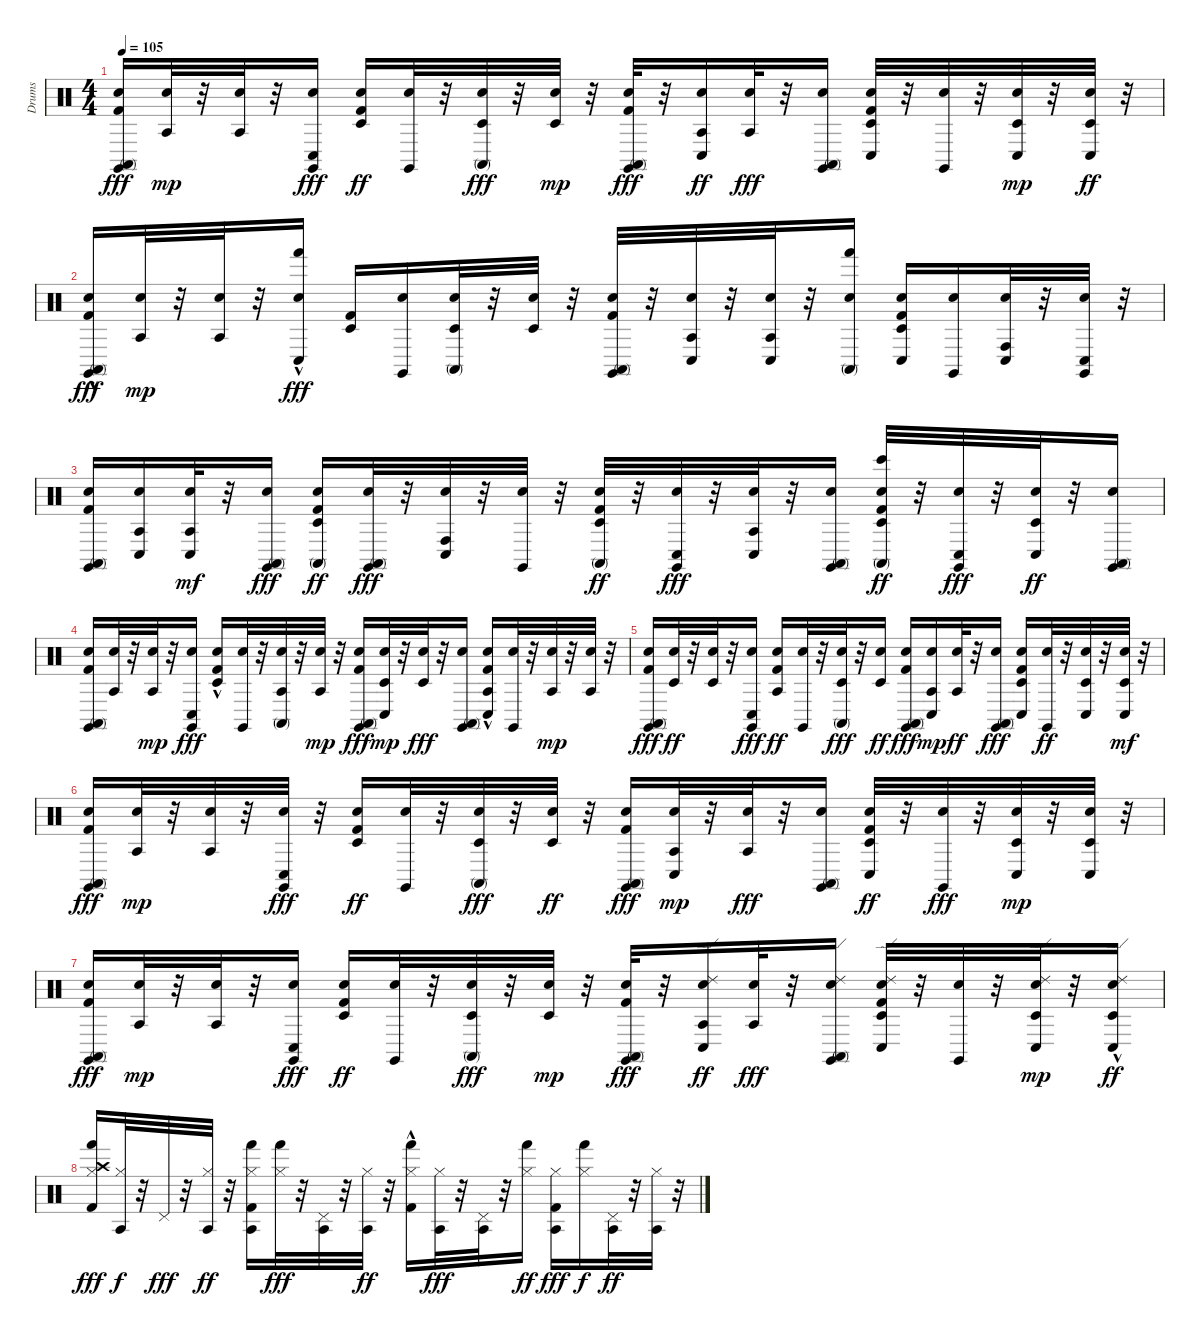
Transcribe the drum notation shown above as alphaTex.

\track ("Drums" "Drums") {instrument percussion}
\staff {score}
\articulation defaults
\ts (4 4)
\tempo 105
\clef neutral
\ks c
("Kick (hit) 2" "Snare (hit) 2" "Conga high (mute)" "Claves (hit)").16{dy fff} ("Agogo tow (hit)" "Snare (hit) 2").32{dy mp} r.32 ("Agogo tow (hit)" "Snare (hit) 2").32 r.32 ("Conga low (hit)" "Snare (hit) 2" "Claves (hit)").16{dy fff} ("Snare (hit) 2" "Kick (hit) 2" "Timbale low (hit)").16{dy ff} ("Snare (hit) 2" "Claves (hit)").32 r.32 ("Conga high (mute)" "Timbale low (hit)" "Snare (hit) 2").32{dy fff} r.32 ("Timbale low (hit)" "Snare (hit) 2").32{dy mp} r.32 ("Snare (hit) 2" "Kick (hit) 2" "Conga high (mute)" "Claves (hit)").32{dy fff} r.32 ("Agogo tow (hit)" "Snare (hit) 2" "Conga low (hit)").16{dy ff} ("Agogo tow (hit)" "Snare (hit) 2").32{dy fff} r.32 ("Conga high (mute)" "Snare (hit) 2" "Claves (hit)").16 ("Timbale low (hit)" "Kick (hit) 2" "Snare (hit) 2" "Conga low (hit)").32 r.32 ("Snare (hit) 2" "Claves (hit)").32 r.32 ("Conga low (hit)" "Timbale low (hit)" "Snare (hit) 2").32{dy mp} r.32 ("Conga low (hit)" "Snare (hit) 2" "Timbale low (hit)").32{dy ff} r.32 |
("Conga high (mute)"{hac} "Snare (hit) 2" "Kick (hit) 2" "Claves (hit)").16{dy fff} ("Agogo tow (hit)" "Snare (hit) 2").32{dy mp} r.32 ("Agogo tow (hit)" "Snare (hit) 2").32 r.32 ("Conga low (hit)" "Hand (hit)" "Snare (hit) 2"{hac}).16{dy fff} ("Kick (hit) 2" "Timbale low (hit)").16 ("Snare (hit) 2" "Claves (hit)").16 ("Conga high (mute)" "Timbale low (hit)" "Snare (hit) 2").32 r.32 ("Snare (hit) 2" "Timbale low (hit)").32 r.32 ("Conga high (mute)" "Snare (hit) 2" "Kick (hit) 2" "Claves (hit)").32 r.32 ("Conga low (hit)" "Snare (hit) 2" "Agogo tow (hit)").32 r.32 ("Conga low (hit)" "Snare (hit) 2" "Agogo tow (hit)").32 r.32 ("Conga high (mute)" "Snare (hit) 2" "Hand (hit)").16 ("Snare (hit) 2" "Kick (hit) 2" "Timbale low (hit)" "Conga low (hit)").16 ("Snare (hit) 2" "Claves (hit)").16 ("Snare (hit) 2" "Conga high (hit)" "Conga low (hit)").32 r.32 ("Conga low (hit)" "Snare (hit) 2" "Claves (hit)").32 r.32 |
("Snare (hit) 2" "Kick (hit) 2" "Conga high (mute)" "Claves (hit)").16 ("Conga low (hit)" "Snare (hit) 2" "Agogo tow (hit)").16 ("Snare (hit) 2" "Agogo tow (hit)" "Conga low (hit)").32{dy mf} r.32 ("Conga high (mute)" "Snare (hit) 2" "Claves (hit)").16{dy fff} ("Snare (hit) 2" "Kick (hit) 2" "Timbale low (hit)" "Conga high (mute)").16{dy ff} ("Snare (hit) 2" "Conga high (mute)" "Claves (hit)").32{dy fff} r.32 ("Snare (hit) 2" "Conga high (hit)" "Conga low (hit)").32 r.32 ("Snare (hit) 2" "Claves (hit)").32 r.32 ("Timbale low (hit)" "Snare (hit) 2" "Kick (hit) 2" "Conga high (mute)").32{dy ff} r.32 ("Conga low (hit)" "Snare (hit) 2" "Claves (hit)").32{dy fff} r.32 ("Agogo tow (hit)" "Snare (hit) 2" "Conga low (hit)").32 r.32 ("Snare (hit) 2" "Conga high (mute)" "Claves (hit)").16 ("Timbale low (hit)" "Snare (hit) 2" "Kick (hit) 2" "Conga high (mute)" "Bongo High (hit)").32{dy ff} r.32 ("Snare (hit) 2" "Conga low (hit)" "Claves (hit)").32{dy fff} r.32 ("Snare (hit) 2" "Timbale low (hit)" "Conga low (hit)").32{dy ff} r.32 ("Conga high (mute)" "Snare (hit) 2" "Claves (hit)").16 |
("Conga high (mute)" "Snare (hit) 2" "Kick (hit) 2" "Claves (hit)").16 ("Snare (hit) 2" "Agogo tow (hit)").32 r.32 ("Snare (hit) 2" "Agogo tow (hit)").32{dy mp} r.32 ("Snare (hit) 2" "Conga low (hit)" "Claves (hit)").16{dy fff} ("Timbale low (hit)" "Snare (hit) 2" "Kick (hit) 2"{hac}).16 ("Snare (hit) 2" "Claves (hit)").32 r.32 ("Conga high (mute)" "Agogo tow (hit)" "Snare (hit) 2").32 r.32 ("Agogo tow (hit)" "Snare (hit) 2").32{dy mp} r.32 ("Snare (hit) 2" "Kick (hit) 2" "Conga high (mute)" "Claves (hit)").16{dy fff} ("Snare (hit) 2" "Timbale low (hit)" "Conga low (hit)").32{dy mp} r.32 ("Timbale low (hit)" "Snare (hit) 2").32{dy fff} r.32 ("Conga high (mute)" "Snare (hit) 2" "Claves (hit)").16 ("Conga low (hit)"{hac} "Agogo tow (hit)" "Snare (hit) 2" "Kick (hit) 2").16 ("Snare (hit) 2" "Claves (hit)").32 r.32 ("Agogo tow (hit)" "Snare (hit) 2").32{dy mp} r.32 ("Agogo tow (hit)" "Snare (hit) 2").32 r.32 |
("Conga high (mute)" "Snare (hit) 2" "Kick (hit) 2" "Claves (hit)").16{dy fff} ("Snare (hit) 2" "Timbale low (hit)").32{dy ff} r.32 ("Snare (hit) 2" "Timbale low (hit)").32 r.32 ("Conga low (hit)" "Snare (hit) 2" "Claves (hit)").16{dy fff} ("Snare (hit) 2" "Kick (hit) 2" "Agogo tow (hit)").16{dy ff} ("Snare (hit) 2" "Claves (hit)").32 r.32 ("Conga high (mute)" "Timbale low (hit)" "Snare (hit) 2").32{dy fff} r.32 ("Snare (hit) 2" "Timbale low (hit)").16{dy ff} ("Conga high (mute)" "Snare (hit) 2" "Kick (hit) 2" "Claves (hit)").16{dy fff} ("Conga low (hit)" "Agogo tow (hit)" "Snare (hit) 2").16{dy mp} ("Snare (hit) 2" "Agogo tow (hit)").32{dy ff} r.32 ("Conga high (mute)" "Snare (hit) 2" "Claves (hit)").16{dy fff} ("Timbale low (hit)" "Snare (hit) 2" "Kick (hit) 2" "Conga low (hit)").16 ("Snare (hit) 2" "Claves (hit)").32{dy ff} r.32 ("Timbale low (hit)" "Snare (hit) 2" "Conga low (hit)").32 r.32 ("Timbale low (hit)" "Snare (hit) 2" "Conga low (hit)").32{dy mf} r.32 |
("Kick (hit) 2" "Snare (hit) 2" "Conga high (mute)" "Claves (hit)").16{dy fff} ("Agogo tow (hit)" "Snare (hit) 2").32{dy mp} r.32 ("Agogo tow (hit)" "Snare (hit) 2").32 r.32 ("Conga low (hit)" "Snare (hit) 2" "Claves (hit)").32{dy fff} r.32 ("Snare (hit) 2" "Kick (hit) 2" "Timbale low (hit)").16{dy ff} ("Snare (hit) 2" "Claves (hit)").32 r.32 ("Conga high (mute)" "Timbale low (hit)" "Snare (hit) 2").32{dy fff} r.32 ("Snare (hit) 2" "Timbale low (hit)").32{dy ff} r.32 ("Conga high (mute)" "Snare (hit) 2" "Kick (hit) 2" "Claves (hit)").16{dy fff} ("Conga low (hit)" "Agogo tow (hit)" "Snare (hit) 2").32{dy mp} r.32 ("Agogo tow (hit)" "Snare (hit) 2").32{dy fff} r.32 ("Conga high (mute)" "Snare (hit) 2" "Claves (hit)").16 ("Kick (hit) 2" "Snare (hit) 2" "Timbale low (hit)" "Conga low (hit)").32{dy ff} r.32 ("Snare (hit) 2" "Claves (hit)").32{dy fff} r.32 ("Timbale low (hit)" "Snare (hit) 2" "Conga low (hit)").32{dy mp} r.32 ("Conga low (hit)" "Timbale low (hit)" "Snare (hit) 2").32 r.32 |
("Kick (hit) 2" "Snare (hit) 2" "Conga high (mute)" "Claves (hit)").16{dy fff} ("Agogo tow (hit)" "Snare (hit) 2").32{dy mp} r.32 ("Agogo tow (hit)" "Snare (hit) 2").32 r.32 ("Conga low (hit)" "Snare (hit) 2" "Claves (hit)").16{dy fff} ("Snare (hit) 2" "Kick (hit) 2" "Timbale low (hit)").16{dy ff} ("Snare (hit) 2" "Claves (hit)").32 r.32 ("Conga high (mute)" "Timbale low (hit)" "Snare (hit) 2").32{dy fff} r.32 ("Timbale low (hit)" "Snare (hit) 2").32{dy mp} r.32 ("Snare (hit) 2" "Kick (hit) 2" "Conga high (mute)" "Claves (hit)").32{dy fff} r.32 ("Ride (edge) 2" "Agogo tow (hit)" "Snare (hit) 2" "Conga low (hit)").16{dy ff} ("Agogo tow (hit)" "Snare (hit) 2").32{dy fff} r.32 ("Ride (edge) 2" "Conga high (mute)" "Snare (hit) 2" "Claves (hit)").16 ("Ride (edge) 2" "Timbale low (hit)" "Kick (hit) 2" "Snare (hit) 2" "Conga low (hit)").32 r.32 ("Snare (hit) 2" "Claves (hit)").32 r.32 ("Ride (edge) 2" "Conga low (hit)" "Timbale low (hit)" "Snare (hit) 2").32{dy mp} r.32 ("Ride (edge) 2" "Conga low (hit)" "Snare (hit) 2"{hac} "Timbale low (hit)").16{dy ff} |
("Kick (hit) 2" "Crash high (hit)" "Hi-Hat (closed)" "Hand (hit)").16{dy fff} ("Hi-Hat (closed)" "Agogo tow (hit)").32{dy f} r.32 "Pedal Hi-Hat (hit)".32{dy fff} r.32 ("Agogo tow (hit)" "Hi-Hat (closed)").32{dy ff} r.32 ("Hand (hit)" "Kick (hit) 2" "Hi-Hat (closed)" "Agogo tow (hit)").16 ("Hi-Hat (closed)" "Hand (hit)").32{dy fff} r.32 ("Pedal Hi-Hat (hit)" "Agogo tow (hit)").32 r.32 ("Hi-Hat (closed)" "Agogo tow (hit)").32{dy ff} r.32 ("Hand (hit)" "Kick (hit) 2"{hac} "Hi-Hat (closed)").16 ("Agogo tow (hit)" "Hi-Hat (closed)").32{dy fff} r.32 ("Agogo tow (hit)" "Pedal Hi-Hat (hit)").32 r.32 ("Hand (hit)" "Hi-Hat (closed)").16{dy ff} ("Agogo tow (hit)" "Kick (hit) 2" "Hi-Hat (closed)").16{dy fff} ("Hand (hit)" "Hi-Hat (closed)").16{dy f} ("Agogo tow (hit)" "Pedal Hi-Hat (hit)").32{dy ff} r.32 ("Agogo tow (hit)" "Hi-Hat (closed)").32 r.32
